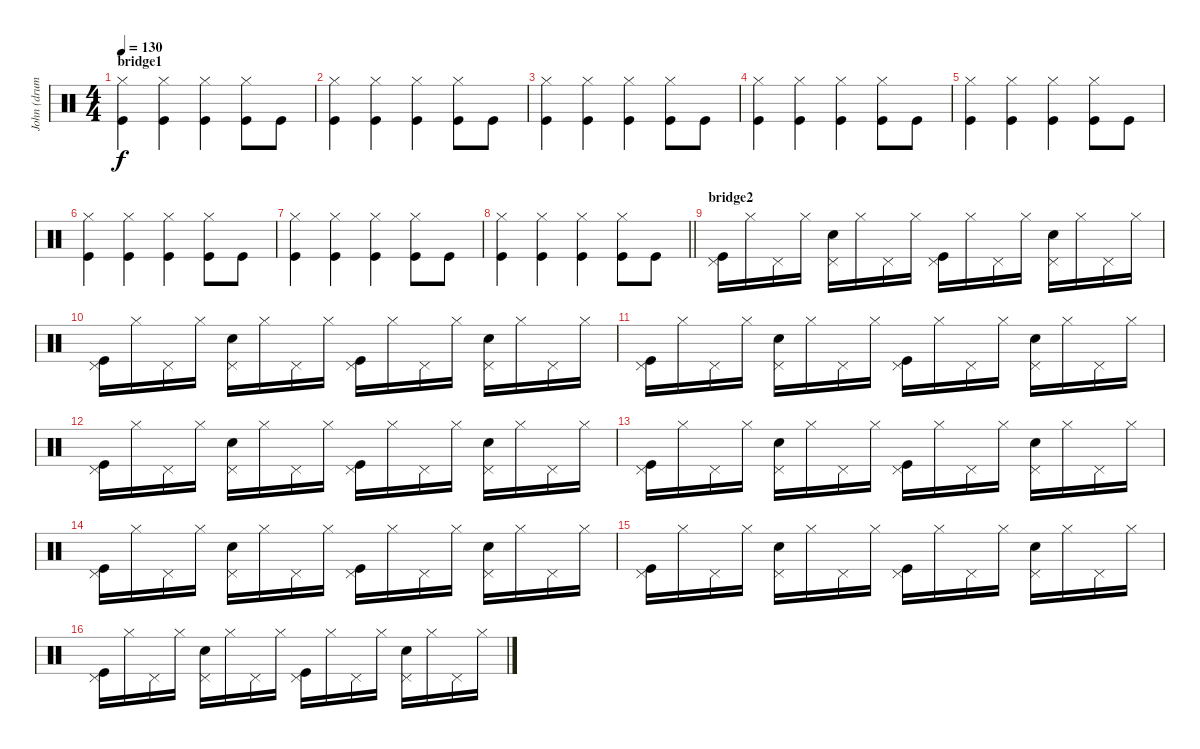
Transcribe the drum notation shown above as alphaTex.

\track ("John (drums)" "John (drum") {instrument percussion}
\staff {score}
\articulation defaults
\ts (4 4)
\section ("" "bridge1")
\tempo 130
\clef neutral
\ks c
("Hi-Hat (closed)" "Kick (hit)").4{dy f} ("Hi-Hat (closed)" "Kick (hit)").4 ("Hi-Hat (closed)" "Kick (hit)").4 ("Hi-Hat (closed)" "Kick (hit)").8 "Kick (hit)".8 |
("Hi-Hat (closed)" "Kick (hit)").4 ("Hi-Hat (closed)" "Kick (hit)").4 ("Hi-Hat (closed)" "Kick (hit)").4 ("Hi-Hat (closed)" "Kick (hit)").8 "Kick (hit)".8 |
("Hi-Hat (closed)" "Kick (hit)").4 ("Hi-Hat (closed)" "Kick (hit)").4 ("Hi-Hat (closed)" "Kick (hit)").4 ("Hi-Hat (closed)" "Kick (hit)").8 "Kick (hit)".8 |
("Hi-Hat (closed)" "Kick (hit)").4 ("Hi-Hat (closed)" "Kick (hit)").4 ("Hi-Hat (closed)" "Kick (hit)").4 ("Hi-Hat (closed)" "Kick (hit)").8 "Kick (hit)".8 |
("Hi-Hat (closed)" "Kick (hit)").4 ("Hi-Hat (closed)" "Kick (hit)").4 ("Hi-Hat (closed)" "Kick (hit)").4 ("Hi-Hat (closed)" "Kick (hit)").8 "Kick (hit)".8 |
("Hi-Hat (closed)" "Kick (hit)").4 ("Hi-Hat (closed)" "Kick (hit)").4 ("Hi-Hat (closed)" "Kick (hit)").4 ("Hi-Hat (closed)" "Kick (hit)").8 "Kick (hit)".8 |
("Hi-Hat (closed)" "Kick (hit)").4 ("Hi-Hat (closed)" "Kick (hit)").4 ("Hi-Hat (closed)" "Kick (hit)").4 ("Hi-Hat (closed)" "Kick (hit)").8 "Kick (hit)".8 |
\barLineRight lightlight
("Hi-Hat (closed)" "Kick (hit)").4 ("Hi-Hat (closed)" "Kick (hit)").4 ("Hi-Hat (closed)" "Kick (hit)").4 ("Hi-Hat (closed)" "Kick (hit)").8 "Kick (hit)".8 |
\section ("" "bridge2")
("Pedal Hi-Hat (hit)" "Kick (hit)").16 "Hi-Hat (closed)".16 "Pedal Hi-Hat (hit)".16 "Hi-Hat (closed)".16 ("Pedal Hi-Hat (hit)" "Electric Snare (hit)").16 "Hi-Hat (closed)".16 "Pedal Hi-Hat (hit)".16 "Hi-Hat (closed)".16 ("Pedal Hi-Hat (hit)" "Kick (hit)").16 "Hi-Hat (closed)".16 "Pedal Hi-Hat (hit)".16 "Hi-Hat (closed)".16 ("Pedal Hi-Hat (hit)" "Snare (hit) 2").16 "Hi-Hat (closed)".16 "Pedal Hi-Hat (hit)".16 "Hi-Hat (closed)".16 |
("Pedal Hi-Hat (hit)" "Kick (hit)").16 "Hi-Hat (closed)".16 "Pedal Hi-Hat (hit)".16 "Hi-Hat (closed)".16 ("Pedal Hi-Hat (hit)" "Electric Snare (hit)").16 "Hi-Hat (closed)".16 "Pedal Hi-Hat (hit)".16 "Hi-Hat (closed)".16 ("Pedal Hi-Hat (hit)" "Kick (hit)").16 "Hi-Hat (closed)".16 "Pedal Hi-Hat (hit)".16 "Hi-Hat (closed)".16 ("Pedal Hi-Hat (hit)" "Snare (hit) 2").16 "Hi-Hat (closed)".16 "Pedal Hi-Hat (hit)".16 "Hi-Hat (closed)".16 |
("Pedal Hi-Hat (hit)" "Kick (hit)").16 "Hi-Hat (closed)".16 "Pedal Hi-Hat (hit)".16 "Hi-Hat (closed)".16 ("Pedal Hi-Hat (hit)" "Electric Snare (hit)").16 "Hi-Hat (closed)".16 "Pedal Hi-Hat (hit)".16 "Hi-Hat (closed)".16 ("Pedal Hi-Hat (hit)" "Kick (hit)").16 "Hi-Hat (closed)".16 "Pedal Hi-Hat (hit)".16 "Hi-Hat (closed)".16 ("Pedal Hi-Hat (hit)" "Snare (hit) 2").16 "Hi-Hat (closed)".16 "Pedal Hi-Hat (hit)".16 "Hi-Hat (closed)".16 |
("Pedal Hi-Hat (hit)" "Kick (hit)").16 "Hi-Hat (closed)".16 "Pedal Hi-Hat (hit)".16 "Hi-Hat (closed)".16 ("Pedal Hi-Hat (hit)" "Electric Snare (hit)").16 "Hi-Hat (closed)".16 "Pedal Hi-Hat (hit)".16 "Hi-Hat (closed)".16 ("Pedal Hi-Hat (hit)" "Kick (hit)").16 "Hi-Hat (closed)".16 "Pedal Hi-Hat (hit)".16 "Hi-Hat (closed)".16 ("Pedal Hi-Hat (hit)" "Snare (hit) 2").16 "Hi-Hat (closed)".16 "Pedal Hi-Hat (hit)".16 "Hi-Hat (closed)".16 |
("Pedal Hi-Hat (hit)" "Kick (hit)").16 "Hi-Hat (closed)".16 "Pedal Hi-Hat (hit)".16 "Hi-Hat (closed)".16 ("Pedal Hi-Hat (hit)" "Electric Snare (hit)").16 "Hi-Hat (closed)".16 "Pedal Hi-Hat (hit)".16 "Hi-Hat (closed)".16 ("Pedal Hi-Hat (hit)" "Kick (hit)").16 "Hi-Hat (closed)".16 "Pedal Hi-Hat (hit)".16 "Hi-Hat (closed)".16 ("Pedal Hi-Hat (hit)" "Snare (hit) 2").16 "Hi-Hat (closed)".16 "Pedal Hi-Hat (hit)".16 "Hi-Hat (closed)".16 |
("Pedal Hi-Hat (hit)" "Kick (hit)").16 "Hi-Hat (closed)".16 "Pedal Hi-Hat (hit)".16 "Hi-Hat (closed)".16 ("Pedal Hi-Hat (hit)" "Electric Snare (hit)").16 "Hi-Hat (closed)".16 "Pedal Hi-Hat (hit)".16 "Hi-Hat (closed)".16 ("Pedal Hi-Hat (hit)" "Kick (hit)").16 "Hi-Hat (closed)".16 "Pedal Hi-Hat (hit)".16 "Hi-Hat (closed)".16 ("Pedal Hi-Hat (hit)" "Snare (hit) 2").16 "Hi-Hat (closed)".16 "Pedal Hi-Hat (hit)".16 "Hi-Hat (closed)".16 |
("Pedal Hi-Hat (hit)" "Kick (hit)").16 "Hi-Hat (closed)".16 "Pedal Hi-Hat (hit)".16 "Hi-Hat (closed)".16 ("Pedal Hi-Hat (hit)" "Electric Snare (hit)").16 "Hi-Hat (closed)".16 "Pedal Hi-Hat (hit)".16 "Hi-Hat (closed)".16 ("Pedal Hi-Hat (hit)" "Kick (hit)").16 "Hi-Hat (closed)".16 "Pedal Hi-Hat (hit)".16 "Hi-Hat (closed)".16 ("Pedal Hi-Hat (hit)" "Snare (hit) 2").16 "Hi-Hat (closed)".16 "Pedal Hi-Hat (hit)".16 "Hi-Hat (closed)".16 |
("Pedal Hi-Hat (hit)" "Kick (hit)").16 "Hi-Hat (closed)".16 "Pedal Hi-Hat (hit)".16 "Hi-Hat (closed)".16 ("Pedal Hi-Hat (hit)" "Electric Snare (hit)").16 "Hi-Hat (closed)".16 "Pedal Hi-Hat (hit)".16 "Hi-Hat (closed)".16 ("Pedal Hi-Hat (hit)" "Kick (hit)").16 "Hi-Hat (closed)".16 "Pedal Hi-Hat (hit)".16 "Hi-Hat (closed)".16 ("Pedal Hi-Hat (hit)" "Snare (hit) 2").16 "Hi-Hat (closed)".16 "Pedal Hi-Hat (hit)".16 "Hi-Hat (closed)".16
